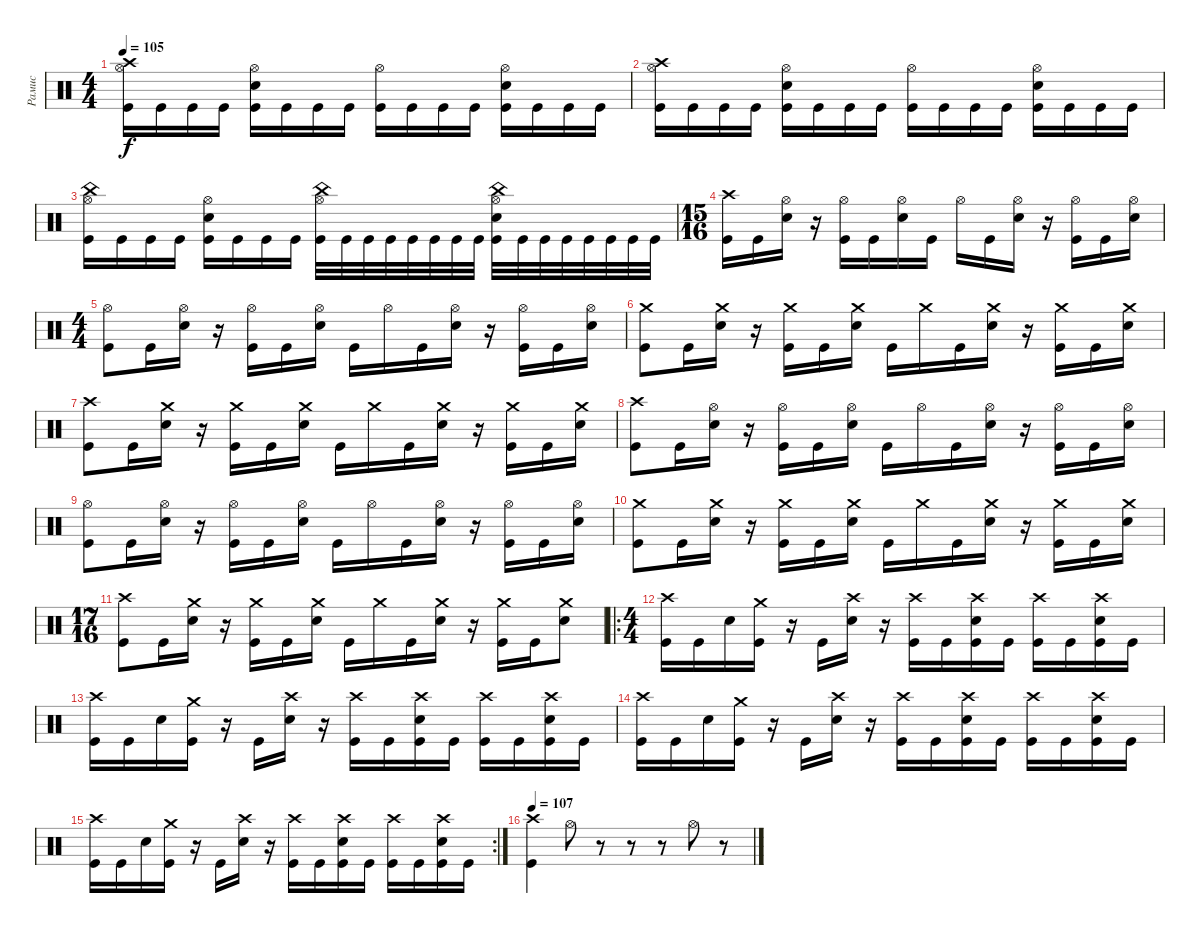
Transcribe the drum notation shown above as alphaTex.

\track ("Рамис" "Рамис") {instrument percussion}
\staff {score}
\articulation defaults
\ts (4 4)
\tempo 105
\clef neutral
\ks c
("Hi-Hat (open)" "Crash high (hit)" "Kick (hit)").16{dy f} "Kick (hit)".16 "Kick (hit)".16 "Kick (hit)".16 ("Hi-Hat (open)" "Electric Snare (hit)" "Kick (hit)").16 "Kick (hit)".16 "Kick (hit)".16 "Kick (hit)".16 ("Hi-Hat (open)" "Kick (hit)").16 "Kick (hit)".16 "Kick (hit)".16 "Kick (hit)".16 ("Hi-Hat (open)" "Electric Snare (hit)" "Kick (hit)").16 "Kick (hit)".16 "Kick (hit)".16 "Kick (hit)".16 |
("Hi-Hat (open)" "Crash high (hit)" "Kick (hit)").16 "Kick (hit)".16 "Kick (hit)".16 "Kick (hit)".16 ("Hi-Hat (open)" "Electric Snare (hit)" "Kick (hit)").16 "Kick (hit)".16 "Kick (hit)".16 "Kick (hit)".16 ("Hi-Hat (open)" "Kick (hit)").16 "Kick (hit)".16 "Kick (hit)".16 "Kick (hit)".16 ("Hi-Hat (open)" "Electric Snare (hit)" "Kick (hit)").16 "Kick (hit)".16 "Kick (hit)".16 "Kick (hit)".16 |
("Hi-Hat (open)" "China (hit)" "Kick (hit)").16 "Kick (hit)".16 "Kick (hit)".16 "Kick (hit)".16 ("Hi-Hat (open)" "Electric Snare (hit)" "Kick (hit)").16 "Kick (hit)".16 "Kick (hit)".16 "Kick (hit)".16 ("Hi-Hat (open)" "China (hit)" "Kick (hit)").32 "Kick (hit)".32 "Kick (hit)".32 "Kick (hit)".32 "Kick (hit)".32 "Kick (hit)".32 "Kick (hit)".32 "Kick (hit)".32 ("Hi-Hat (open)" "China (hit)" "Electric Snare (hit)" "Kick (hit)").32 "Kick (hit)".32 "Kick (hit)".32 "Kick (hit)".32 "Kick (hit)".32 "Kick (hit)".32 "Kick (hit)".32 "Kick (hit)".32 |
\ts (15 16)
("Crash high (hit)" "Kick (hit)").16 "Kick (hit)".16 ("Hi-Hat (open)" "Electric Snare (hit)").16 r.16 ("Hi-Hat (open)" "Kick (hit)").16 "Kick (hit)".16 ("Hi-Hat (open)" "Electric Snare (hit)").16 "Kick (hit)".16 "Hi-Hat (open)".16 "Kick (hit)".16 ("Hi-Hat (open)" "Electric Snare (hit)").16 r.16 ("Hi-Hat (open)" "Kick (hit)").16 "Kick (hit)".16 ("Hi-Hat (open)" "Electric Snare (hit)").16 |
\ts (4 4)
("Hi-Hat (open)" "Kick (hit)").8 "Kick (hit)".16 ("Hi-Hat (open)" "Electric Snare (hit)").16 r.16 ("Hi-Hat (open)" "Kick (hit)").16 "Kick (hit)".16 ("Hi-Hat (open)" "Electric Snare (hit)").16 "Kick (hit)".16 "Hi-Hat (open)".16 "Kick (hit)".16 ("Hi-Hat (open)" "Electric Snare (hit)").16 r.16 ("Hi-Hat (open)" "Kick (hit)").16 "Kick (hit)".16 ("Hi-Hat (open)" "Electric Snare (hit)").16 |
("Crash medium (hit)" "Kick (hit)").8 "Kick (hit)".16 ("Crash medium (hit)" "Electric Snare (hit)").16 r.16 ("Crash medium (hit)" "Kick (hit)").16 "Kick (hit)".16 ("Crash medium (hit)" "Electric Snare (hit)").16 "Kick (hit)".16 "Crash medium (hit)".16 "Kick (hit)".16 ("Crash medium (hit)" "Electric Snare (hit)").16 r.16 ("Crash medium (hit)" "Kick (hit)").16 "Kick (hit)".16 ("Crash medium (hit)" "Electric Snare (hit)").16 |
("Crash high (hit)" "Kick (hit)").8 "Kick (hit)".16 ("Crash medium (hit)" "Electric Snare (hit)").16 r.16 ("Crash medium (hit)" "Kick (hit)").16 "Kick (hit)".16 ("Crash medium (hit)" "Electric Snare (hit)").16 "Kick (hit)".16 "Crash medium (hit)".16 "Kick (hit)".16 ("Crash medium (hit)" "Electric Snare (hit)").16 r.16 ("Crash medium (hit)" "Kick (hit)").16 "Kick (hit)".16 ("Crash medium (hit)" "Electric Snare (hit)").16 |
("Crash high (hit)" "Kick (hit)").8 "Kick (hit)".16 ("Hi-Hat (open)" "Electric Snare (hit)").16 r.16 ("Hi-Hat (open)" "Kick (hit)").16 "Kick (hit)".16 ("Hi-Hat (open)" "Electric Snare (hit)").16 "Kick (hit)".16 "Hi-Hat (open)".16 "Kick (hit)".16 ("Hi-Hat (open)" "Electric Snare (hit)").16 r.16 ("Hi-Hat (open)" "Kick (hit)").16 "Kick (hit)".16 ("Hi-Hat (open)" "Electric Snare (hit)").16 |
("Hi-Hat (open)" "Kick (hit)").8 "Kick (hit)".16 ("Hi-Hat (open)" "Electric Snare (hit)").16 r.16 ("Hi-Hat (open)" "Kick (hit)").16 "Kick (hit)".16 ("Hi-Hat (open)" "Electric Snare (hit)").16 "Kick (hit)".16 "Hi-Hat (open)".16 "Kick (hit)".16 ("Hi-Hat (open)" "Electric Snare (hit)").16 r.16 ("Hi-Hat (open)" "Kick (hit)").16 "Kick (hit)".16 ("Hi-Hat (open)" "Electric Snare (hit)").16 |
("Crash medium (hit)" "Kick (hit)").8 "Kick (hit)".16 ("Crash medium (hit)" "Electric Snare (hit)").16 r.16 ("Crash medium (hit)" "Kick (hit)").16 "Kick (hit)".16 ("Crash medium (hit)" "Electric Snare (hit)").16 "Kick (hit)".16 "Crash medium (hit)".16 "Kick (hit)".16 ("Crash medium (hit)" "Electric Snare (hit)").16 r.16 ("Crash medium (hit)" "Kick (hit)").16 "Kick (hit)".16 ("Crash medium (hit)" "Electric Snare (hit)").16 |
\ts (17 16)
("Crash high (hit)" "Kick (hit)").8 "Kick (hit)".16 ("Crash medium (hit)" "Electric Snare (hit)").16 r.16 ("Crash medium (hit)" "Kick (hit)").16 "Kick (hit)".16 ("Crash medium (hit)" "Electric Snare (hit)").16 "Kick (hit)".16 "Crash medium (hit)".16 "Kick (hit)".16 ("Crash medium (hit)" "Electric Snare (hit)").16 r.16 ("Crash medium (hit)" "Kick (hit)").16 "Kick (hit)".16 ("Crash medium (hit)" "Electric Snare (hit)").8 |
\ro
\ts (4 4)
("Crash high (hit)" "Kick (hit)").16 "Kick (hit)".16 "Electric Snare (hit)".16 ("Crash medium (hit)" "Kick (hit)").16 r.16 "Kick (hit)".16 ("Crash high (hit)" "Electric Snare (hit)").16 r.16 ("Crash high (hit)" "Kick (hit)").16 "Kick (hit)".16 ("Crash high (hit)" "Electric Snare (hit)" "Kick (hit)").16 "Kick (hit)".16 ("Crash high (hit)" "Kick (hit)").16 "Kick (hit)".16 ("Crash high (hit)" "Electric Snare (hit)" "Kick (hit)").16 "Kick (hit)".16 |
("Crash high (hit)" "Kick (hit)").16 "Kick (hit)".16 "Electric Snare (hit)".16 ("Crash medium (hit)" "Kick (hit)").16 r.16 "Kick (hit)".16 ("Crash high (hit)" "Electric Snare (hit)").16 r.16 ("Crash high (hit)" "Kick (hit)").16 "Kick (hit)".16 ("Crash high (hit)" "Electric Snare (hit)" "Kick (hit)").16 "Kick (hit)".16 ("Crash high (hit)" "Kick (hit)").16 "Kick (hit)".16 ("Crash high (hit)" "Electric Snare (hit)" "Kick (hit)").16 "Kick (hit)".16 |
("Crash high (hit)" "Kick (hit)").16 "Kick (hit)".16 "Electric Snare (hit)".16 ("Crash medium (hit)" "Kick (hit)").16 r.16 "Kick (hit)".16 ("Crash high (hit)" "Electric Snare (hit)").16 r.16 ("Crash high (hit)" "Kick (hit)").16 "Kick (hit)".16 ("Crash high (hit)" "Electric Snare (hit)" "Kick (hit)").16 "Kick (hit)".16 ("Crash high (hit)" "Kick (hit)").16 "Kick (hit)".16 ("Crash high (hit)" "Electric Snare (hit)" "Kick (hit)").16 "Kick (hit)".16 |
\rc 2
("Crash high (hit)" "Kick (hit)").16 "Kick (hit)".16 "Electric Snare (hit)".16 ("Crash medium (hit)" "Kick (hit)").16 r.16 "Kick (hit)".16 ("Crash high (hit)" "Electric Snare (hit)").16 r.16 ("Crash high (hit)" "Kick (hit)").16 "Kick (hit)".16 ("Crash high (hit)" "Electric Snare (hit)" "Kick (hit)").16 "Kick (hit)".16 ("Crash high (hit)" "Kick (hit)").16 "Kick (hit)".16 ("Crash high (hit)" "Electric Snare (hit)" "Kick (hit)").16 "Kick (hit)".16 |
\tempo 115
\tempo 107
("Crash high (hit)" "Kick (hit)").4 "Hi-Hat (open)".8 r.8 r.8 r.8 "Hi-Hat (open)".8 r.8
